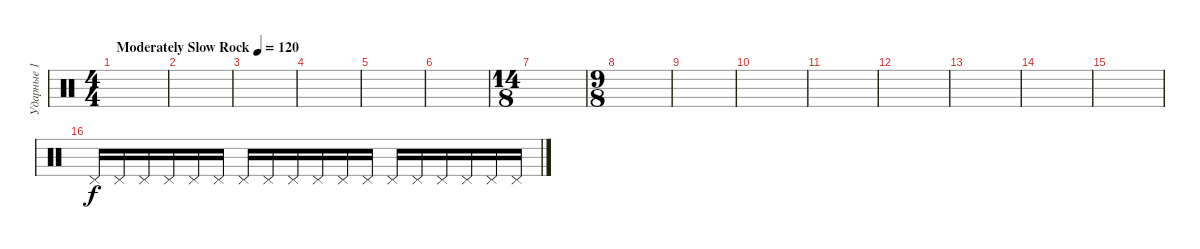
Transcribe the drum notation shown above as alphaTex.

\track ("Ударные 1" "Ударные 1") {instrument percussion}
\staff {score}
\articulation defaults
\ts (4 4)
\tempo (120 "Moderately Slow Rock")
\clef neutral
\ks c
|
|
|
|
|
|
\ts (14 8)
|
\ts (9 8)
|
|
|
|
|
|
|
|
"Pedal Hi-Hat (hit)".16 "Pedal Hi-Hat (hit)".16 "Pedal Hi-Hat (hit)".16 "Pedal Hi-Hat (hit)".16 "Pedal Hi-Hat (hit)".16 "Pedal Hi-Hat (hit)".16 "Pedal Hi-Hat (hit)".16 "Pedal Hi-Hat (hit)".16 "Pedal Hi-Hat (hit)".16 "Pedal Hi-Hat (hit)".16 "Pedal Hi-Hat (hit)".16 "Pedal Hi-Hat (hit)".16 "Pedal Hi-Hat (hit)".16 "Pedal Hi-Hat (hit)".16 "Pedal Hi-Hat (hit)".16 "Pedal Hi-Hat (hit)".16 "Pedal Hi-Hat (hit)".16 "Pedal Hi-Hat (hit)".16
